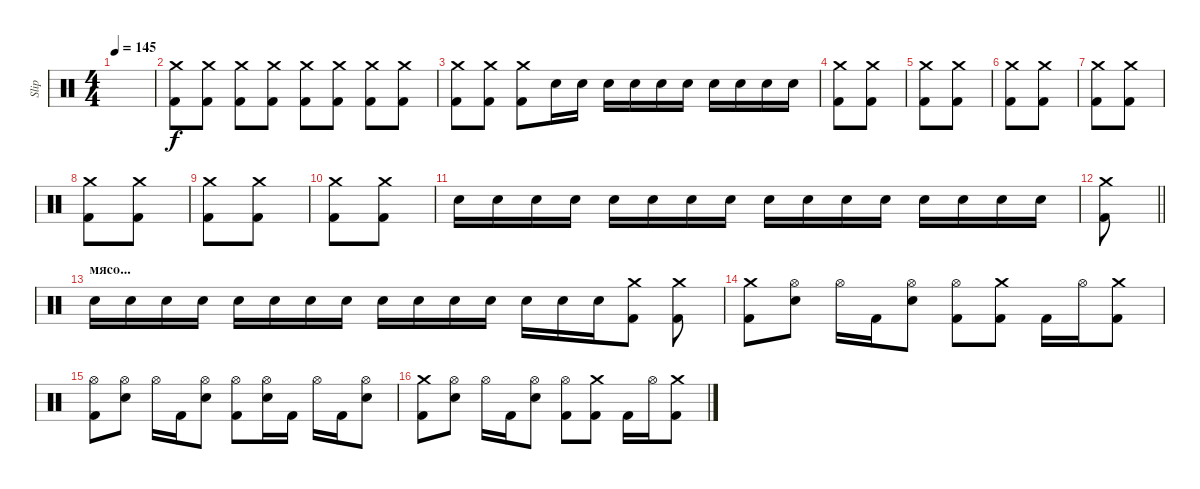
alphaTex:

\track ("Slip" "Slip") {instrument percussion}
\staff {score}
\articulation defaults
\ts (4 4)
\tempo 145
\clef neutral
\ks c
|
("Kick (hit) 2" "Crash medium (hit)").8 ("Kick (hit) 2" "Crash medium (hit)").8 ("Kick (hit) 2" "Crash medium (hit)").8 ("Kick (hit) 2" "Crash medium (hit)").8 ("Kick (hit) 2" "Crash medium (hit)").8 ("Kick (hit) 2" "Crash medium (hit)").8 ("Kick (hit) 2" "Crash medium (hit)").8 ("Kick (hit) 2" "Crash medium (hit)").8 |
("Kick (hit) 2" "Crash medium (hit)").8 ("Kick (hit) 2" "Crash medium (hit)").8 ("Kick (hit) 2" "Crash medium (hit)").8 "Electric Snare (hit)".16 "Electric Snare (hit)".16 "Electric Snare (hit)".16 "Electric Snare (hit)".16 "Electric Snare (hit)".16 "Electric Snare (hit)".16 "Electric Snare (hit)".16 "Electric Snare (hit)".16 "Electric Snare (hit)".16 "Electric Snare (hit)".16 |
("Kick (hit) 2" "Crash medium (hit)").8 ("Kick (hit) 2" "Crash medium (hit)").8 |
("Kick (hit) 2" "Crash medium (hit)").8 ("Kick (hit) 2" "Crash medium (hit)").8 |
("Kick (hit) 2" "Crash medium (hit)").8 ("Kick (hit) 2" "Crash medium (hit)").8 |
("Kick (hit) 2" "Crash medium (hit)").8 ("Kick (hit) 2" "Crash medium (hit)").8 |
("Kick (hit) 2" "Crash medium (hit)").8 ("Kick (hit) 2" "Crash medium (hit)").8 |
("Kick (hit) 2" "Crash medium (hit)").8 ("Kick (hit) 2" "Crash medium (hit)").8 |
("Kick (hit) 2" "Crash medium (hit)").8 ("Kick (hit) 2" "Crash medium (hit)").8 |
"Electric Snare (hit)".16 "Electric Snare (hit)".16 "Electric Snare (hit)".16 "Electric Snare (hit)".16 "Electric Snare (hit)".16 "Electric Snare (hit)".16 "Electric Snare (hit)".16 "Electric Snare (hit)".16 "Electric Snare (hit)".16 "Electric Snare (hit)".16 "Electric Snare (hit)".16 "Electric Snare (hit)".16 "Electric Snare (hit)".16 "Electric Snare (hit)".16 "Electric Snare (hit)".16 "Electric Snare (hit)".16 |
\barLineRight lightlight
("Kick (hit) 2" "Crash medium (hit)").8 |
\section ("" "мясо...")
"Electric Snare (hit)".16 "Electric Snare (hit)".16 "Electric Snare (hit)".16 "Electric Snare (hit)".16 "Electric Snare (hit)".16 "Electric Snare (hit)".16 "Electric Snare (hit)".16 "Electric Snare (hit)".16 "Electric Snare (hit)".16 "Electric Snare (hit)".16 "Electric Snare (hit)".16 "Electric Snare (hit)".16 "Electric Snare (hit)".16 "Electric Snare (hit)".16 "Electric Snare (hit)".16 ("Kick (hit) 2" "Crash medium (hit)").8 ("Kick (hit) 2" "Crash medium (hit)").8 |
("Kick (hit) 2" "Crash medium (hit)").8 ("Electric Snare (hit)" "Hi-Hat (open)").8 "Hi-Hat (open)".16 "Kick (hit) 2".16 ("Electric Snare (hit)" "Hi-Hat (open)").8 ("Kick (hit) 2" "Hi-Hat (open)").8 ("Kick (hit) 2" "Crash medium (hit)").8 "Kick (hit) 2".16 "Hi-Hat (open)".16 ("Kick (hit) 2" "Crash medium (hit)").8 |
("Kick (hit) 2" "Hi-Hat (open)").8 ("Electric Snare (hit)" "Hi-Hat (open)").8 "Hi-Hat (open)".16 "Kick (hit) 2".16 ("Electric Snare (hit)" "Hi-Hat (open)").8 ("Kick (hit) 2" "Hi-Hat (open)").8 ("Electric Snare (hit)" "Hi-Hat (open)").16 "Kick (hit) 2".16 "Hi-Hat (open)".16 "Kick (hit) 2".16 ("Electric Snare (hit)" "Hi-Hat (open)").8 |
("Kick (hit) 2" "Crash medium (hit)").8 ("Electric Snare (hit)" "Hi-Hat (open)").8 "Hi-Hat (open)".16 "Kick (hit) 2".16 ("Electric Snare (hit)" "Hi-Hat (open)").8 ("Kick (hit) 2" "Hi-Hat (open)").8 ("Kick (hit) 2" "Crash medium (hit)").8 "Kick (hit) 2".16 "Hi-Hat (open)".16 ("Kick (hit) 2" "Crash medium (hit)").8
